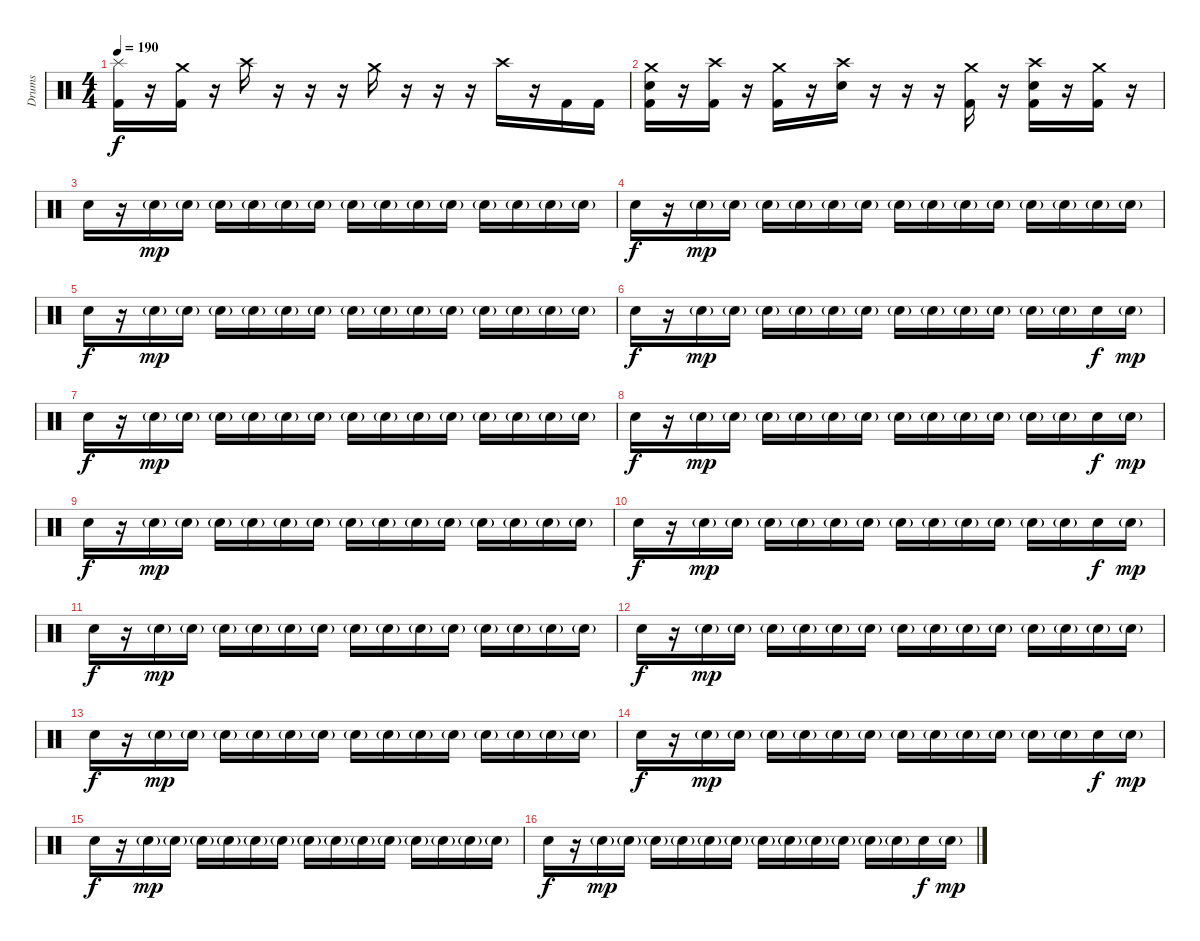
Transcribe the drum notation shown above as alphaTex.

\track ("Drums" "Drums") {instrument percussion}
\staff {score}
\articulation defaults
\ts (4 4)
\tempo 190
\clef neutral
\ks c
("Splash (hit)" "Kick (hit) 2").16{dy f} r.16 ("Crash medium (hit)" "Kick (hit) 2").16 r.16 "Crash high (hit)".16 r.16 r.16 r.16 "Crash medium (hit)".16 r.16 r.16 r.16 "Crash high (hit)".16 r.16 "Kick (hit) 2".16 "Kick (hit) 2".16 |
("Crash medium (hit)" "Electric Snare (hit)" "Kick (hit) 2").16 r.16 ("Crash high (hit)" "Kick (hit) 2").16 r.16 ("Crash medium (hit)" "Kick (hit) 2").16 r.16 ("Crash high (hit)" "Electric Snare (hit)").16 r.16 r.16 r.16 ("Crash medium (hit)" "Kick (hit) 2").16 r.16 ("Crash high (hit)" "Electric Snare (hit)" "Kick (hit) 2").16 r.16 ("Crash medium (hit)" "Kick (hit) 2").16 r.16 |
"Electric Snare (hit)".16 r.16 "Electric Snare (hit)"{g}.16{dy mp} "Electric Snare (hit)"{g}.16 "Electric Snare (hit)"{g}.16 "Electric Snare (hit)"{g}.16 "Electric Snare (hit)"{g}.16 "Electric Snare (hit)"{g}.16 "Electric Snare (hit)"{g}.16 "Electric Snare (hit)"{g}.16 "Electric Snare (hit)"{g}.16 "Electric Snare (hit)"{g}.16 "Electric Snare (hit)"{g}.16 "Electric Snare (hit)"{g}.16 "Electric Snare (hit)"{g}.16 "Electric Snare (hit)"{g}.16 |
"Electric Snare (hit)".16{dy f} r.16 "Electric Snare (hit)"{g}.16{dy mp} "Electric Snare (hit)"{g}.16 "Electric Snare (hit)"{g}.16 "Electric Snare (hit)"{g}.16 "Electric Snare (hit)"{g}.16 "Electric Snare (hit)"{g}.16 "Electric Snare (hit)"{g}.16 "Electric Snare (hit)"{g}.16 "Electric Snare (hit)"{g}.16 "Electric Snare (hit)"{g}.16 "Electric Snare (hit)"{g}.16 "Electric Snare (hit)"{g}.16 "Electric Snare (hit)"{g}.16 "Electric Snare (hit)"{g}.16 |
"Electric Snare (hit)".16{dy f} r.16 "Electric Snare (hit)"{g}.16{dy mp} "Electric Snare (hit)"{g}.16 "Electric Snare (hit)"{g}.16 "Electric Snare (hit)"{g}.16 "Electric Snare (hit)"{g}.16 "Electric Snare (hit)"{g}.16 "Electric Snare (hit)"{g}.16 "Electric Snare (hit)"{g}.16 "Electric Snare (hit)"{g}.16 "Electric Snare (hit)"{g}.16 "Electric Snare (hit)"{g}.16 "Electric Snare (hit)"{g}.16 "Electric Snare (hit)"{g}.16 "Electric Snare (hit)"{g}.16 |
"Electric Snare (hit)".16{dy f} r.16 "Electric Snare (hit)"{g}.16{dy mp} "Electric Snare (hit)"{g}.16 "Electric Snare (hit)"{g}.16 "Electric Snare (hit)"{g}.16 "Electric Snare (hit)"{g}.16 "Electric Snare (hit)"{g}.16 "Electric Snare (hit)"{g}.16 "Electric Snare (hit)"{g}.16 "Electric Snare (hit)"{g}.16 "Electric Snare (hit)"{g}.16 "Electric Snare (hit)"{g}.16 "Electric Snare (hit)"{g}.16 "Electric Snare (hit)".16{dy f} "Electric Snare (hit)"{g}.16{dy mp} |
"Electric Snare (hit)".16{dy f} r.16 "Electric Snare (hit)"{g}.16{dy mp} "Electric Snare (hit)"{g}.16 "Electric Snare (hit)"{g}.16 "Electric Snare (hit)"{g}.16 "Electric Snare (hit)"{g}.16 "Electric Snare (hit)"{g}.16 "Electric Snare (hit)"{g}.16 "Electric Snare (hit)"{g}.16 "Electric Snare (hit)"{g}.16 "Electric Snare (hit)"{g}.16 "Electric Snare (hit)"{g}.16 "Electric Snare (hit)"{g}.16 "Electric Snare (hit)"{g}.16 "Electric Snare (hit)"{g}.16 |
"Electric Snare (hit)".16{dy f} r.16 "Electric Snare (hit)"{g}.16{dy mp} "Electric Snare (hit)"{g}.16 "Electric Snare (hit)"{g}.16 "Electric Snare (hit)"{g}.16 "Electric Snare (hit)"{g}.16 "Electric Snare (hit)"{g}.16 "Electric Snare (hit)"{g}.16 "Electric Snare (hit)"{g}.16 "Electric Snare (hit)"{g}.16 "Electric Snare (hit)"{g}.16 "Electric Snare (hit)"{g}.16 "Electric Snare (hit)"{g}.16 "Electric Snare (hit)".16{dy f} "Electric Snare (hit)"{g}.16{dy mp} |
"Electric Snare (hit)".16{dy f} r.16 "Electric Snare (hit)"{g}.16{dy mp} "Electric Snare (hit)"{g}.16 "Electric Snare (hit)"{g}.16 "Electric Snare (hit)"{g}.16 "Electric Snare (hit)"{g}.16 "Electric Snare (hit)"{g}.16 "Electric Snare (hit)"{g}.16 "Electric Snare (hit)"{g}.16 "Electric Snare (hit)"{g}.16 "Electric Snare (hit)"{g}.16 "Electric Snare (hit)"{g}.16 "Electric Snare (hit)"{g}.16 "Electric Snare (hit)"{g}.16 "Electric Snare (hit)"{g}.16 |
"Electric Snare (hit)".16{dy f} r.16 "Electric Snare (hit)"{g}.16{dy mp} "Electric Snare (hit)"{g}.16 "Electric Snare (hit)"{g}.16 "Electric Snare (hit)"{g}.16 "Electric Snare (hit)"{g}.16 "Electric Snare (hit)"{g}.16 "Electric Snare (hit)"{g}.16 "Electric Snare (hit)"{g}.16 "Electric Snare (hit)"{g}.16 "Electric Snare (hit)"{g}.16 "Electric Snare (hit)"{g}.16 "Electric Snare (hit)"{g}.16 "Electric Snare (hit)".16{dy f} "Electric Snare (hit)"{g}.16{dy mp} |
"Electric Snare (hit)".16{dy f} r.16 "Electric Snare (hit)"{g}.16{dy mp} "Electric Snare (hit)"{g}.16 "Electric Snare (hit)"{g}.16 "Electric Snare (hit)"{g}.16 "Electric Snare (hit)"{g}.16 "Electric Snare (hit)"{g}.16 "Electric Snare (hit)"{g}.16 "Electric Snare (hit)"{g}.16 "Electric Snare (hit)"{g}.16 "Electric Snare (hit)"{g}.16 "Electric Snare (hit)"{g}.16 "Electric Snare (hit)"{g}.16 "Electric Snare (hit)"{g}.16 "Electric Snare (hit)"{g}.16 |
"Electric Snare (hit)".16{dy f} r.16 "Electric Snare (hit)"{g}.16{dy mp} "Electric Snare (hit)"{g}.16 "Electric Snare (hit)"{g}.16 "Electric Snare (hit)"{g}.16 "Electric Snare (hit)"{g}.16 "Electric Snare (hit)"{g}.16 "Electric Snare (hit)"{g}.16 "Electric Snare (hit)"{g}.16 "Electric Snare (hit)"{g}.16 "Electric Snare (hit)"{g}.16 "Electric Snare (hit)"{g}.16 "Electric Snare (hit)"{g}.16 "Electric Snare (hit)"{g}.16 "Electric Snare (hit)"{g}.16 |
"Electric Snare (hit)".16{dy f} r.16 "Electric Snare (hit)"{g}.16{dy mp} "Electric Snare (hit)"{g}.16 "Electric Snare (hit)"{g}.16 "Electric Snare (hit)"{g}.16 "Electric Snare (hit)"{g}.16 "Electric Snare (hit)"{g}.16 "Electric Snare (hit)"{g}.16 "Electric Snare (hit)"{g}.16 "Electric Snare (hit)"{g}.16 "Electric Snare (hit)"{g}.16 "Electric Snare (hit)"{g}.16 "Electric Snare (hit)"{g}.16 "Electric Snare (hit)"{g}.16 "Electric Snare (hit)"{g}.16 |
"Electric Snare (hit)".16{dy f} r.16 "Electric Snare (hit)"{g}.16{dy mp} "Electric Snare (hit)"{g}.16 "Electric Snare (hit)"{g}.16 "Electric Snare (hit)"{g}.16 "Electric Snare (hit)"{g}.16 "Electric Snare (hit)"{g}.16 "Electric Snare (hit)"{g}.16 "Electric Snare (hit)"{g}.16 "Electric Snare (hit)"{g}.16 "Electric Snare (hit)"{g}.16 "Electric Snare (hit)"{g}.16 "Electric Snare (hit)"{g}.16 "Electric Snare (hit)".16{dy f} "Electric Snare (hit)"{g}.16{dy mp} |
"Electric Snare (hit)".16{dy f} r.16 "Electric Snare (hit)"{g}.16{dy mp} "Electric Snare (hit)"{g}.16 "Electric Snare (hit)"{g}.16 "Electric Snare (hit)"{g}.16 "Electric Snare (hit)"{g}.16 "Electric Snare (hit)"{g}.16 "Electric Snare (hit)"{g}.16 "Electric Snare (hit)"{g}.16 "Electric Snare (hit)"{g}.16 "Electric Snare (hit)"{g}.16 "Electric Snare (hit)"{g}.16 "Electric Snare (hit)"{g}.16 "Electric Snare (hit)"{g}.16 "Electric Snare (hit)"{g}.16 |
"Electric Snare (hit)".16{dy f} r.16 "Electric Snare (hit)"{g}.16{dy mp} "Electric Snare (hit)"{g}.16 "Electric Snare (hit)"{g}.16 "Electric Snare (hit)"{g}.16 "Electric Snare (hit)"{g}.16 "Electric Snare (hit)"{g}.16 "Electric Snare (hit)"{g}.16 "Electric Snare (hit)"{g}.16 "Electric Snare (hit)"{g}.16 "Electric Snare (hit)"{g}.16 "Electric Snare (hit)"{g}.16 "Electric Snare (hit)"{g}.16 "Electric Snare (hit)".16{dy f} "Electric Snare (hit)"{g}.16{dy mp}
